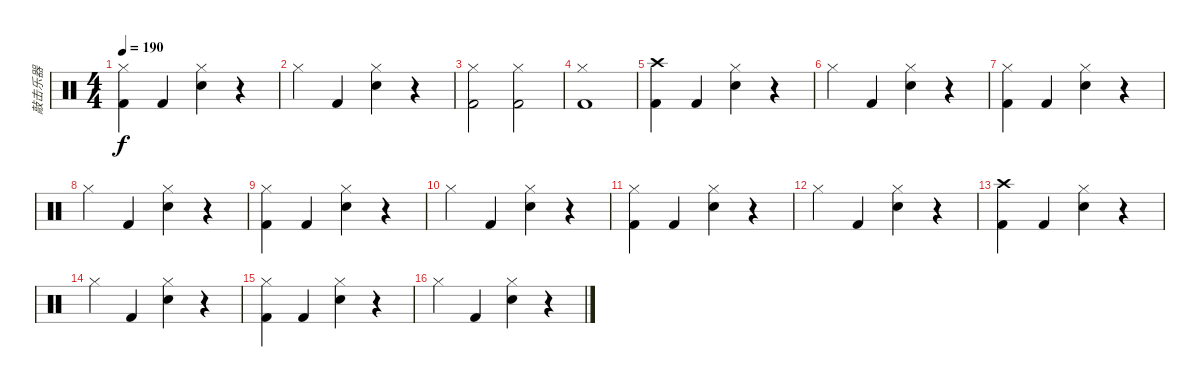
\track ("敲击乐器" "敲击乐器") {instrument percussion}
\staff {score}
\articulation defaults
\ts (4 4)
\tempo 190
\clef neutral
\ks c
("Kick (hit) 2" "Hi-Hat (closed)").4{dy f} "Kick (hit) 2".4 ("Hi-Hat (closed)" "Electric Snare (hit)").4 r.4 |
"Hi-Hat (closed)".4 "Kick (hit) 2".4 ("Electric Snare (hit)" "Hi-Hat (closed)").4 r.4 |
("Hi-Hat (closed)" "Kick (hit) 2").2 ("Hi-Hat (closed)" "Kick (hit) 2").2 |
("Hi-Hat (closed)" "Kick (hit) 2").1 |
("Kick (hit) 2" "Crash high (hit)").4 "Kick (hit) 2".4 ("Hi-Hat (closed)" "Electric Snare (hit)").4 r.4 |
"Hi-Hat (closed)".4 "Kick (hit) 2".4 ("Electric Snare (hit)" "Hi-Hat (closed)").4 r.4 |
("Kick (hit) 2" "Hi-Hat (closed)").4 "Kick (hit) 2".4 ("Hi-Hat (closed)" "Electric Snare (hit)").4 r.4 |
"Hi-Hat (closed)".4 "Kick (hit) 2".4 ("Electric Snare (hit)" "Hi-Hat (closed)").4 r.4 |
("Kick (hit) 2" "Hi-Hat (closed)").4 "Kick (hit) 2".4 ("Hi-Hat (closed)" "Electric Snare (hit)").4 r.4 |
"Hi-Hat (closed)".4 "Kick (hit) 2".4 ("Electric Snare (hit)" "Hi-Hat (closed)").4 r.4 |
("Kick (hit) 2" "Hi-Hat (closed)").4 "Kick (hit) 2".4 ("Hi-Hat (closed)" "Electric Snare (hit)").4 r.4 |
"Hi-Hat (closed)".4 "Kick (hit) 2".4 ("Electric Snare (hit)" "Hi-Hat (closed)").4 r.4 |
("Kick (hit) 2" "Crash high (hit)").4 "Kick (hit) 2".4 ("Hi-Hat (closed)" "Electric Snare (hit)").4 r.4 |
"Hi-Hat (closed)".4 "Kick (hit) 2".4 ("Electric Snare (hit)" "Hi-Hat (closed)").4 r.4 |
("Kick (hit) 2" "Hi-Hat (closed)").4 "Kick (hit) 2".4 ("Hi-Hat (closed)" "Electric Snare (hit)").4 r.4 |
"Hi-Hat (closed)".4 "Kick (hit) 2".4 ("Electric Snare (hit)" "Hi-Hat (closed)").4 r.4
